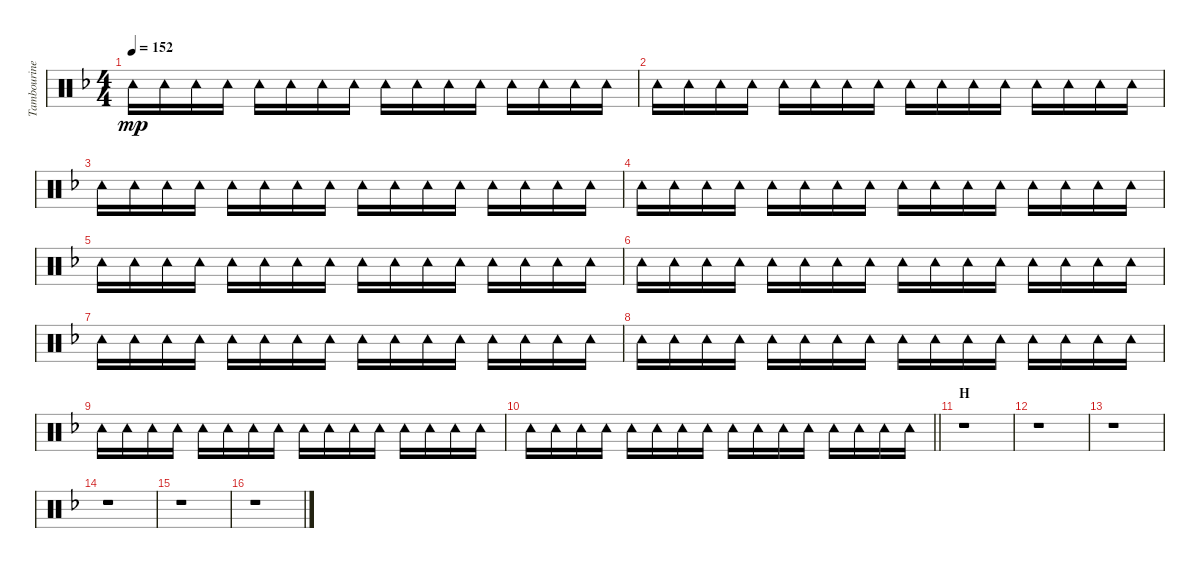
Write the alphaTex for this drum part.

\track ("Tambourine" "Tambourine") {instrument percussion}
\staff {score}
\articulation defaults
\ts (4 4)
\tempo 152
\clef neutral
\ks f "Tambourine (hit)".16{dy mp} "Tambourine (hit)".16 "Tambourine (hit)".16 "Tambourine (hit)".16 "Tambourine (hit)".16 "Tambourine (hit)".16 "Tambourine (hit)".16 "Tambourine (hit)".16 "Tambourine (hit)".16 "Tambourine (hit)".16 "Tambourine (hit)".16 "Tambourine (hit)".16 "Tambourine (hit)".16 "Tambourine (hit)".16 "Tambourine (hit)".16 "Tambourine (hit)".16
|
"Tambourine (hit)".16 "Tambourine (hit)".16 "Tambourine (hit)".16 "Tambourine (hit)".16 "Tambourine (hit)".16 "Tambourine (hit)".16 "Tambourine (hit)".16 "Tambourine (hit)".16 "Tambourine (hit)".16 "Tambourine (hit)".16 "Tambourine (hit)".16 "Tambourine (hit)".16 "Tambourine (hit)".16 "Tambourine (hit)".16 "Tambourine (hit)".16 "Tambourine (hit)".16 |
"Tambourine (hit)".16 "Tambourine (hit)".16 "Tambourine (hit)".16 "Tambourine (hit)".16 "Tambourine (hit)".16 "Tambourine (hit)".16 "Tambourine (hit)".16 "Tambourine (hit)".16 "Tambourine (hit)".16 "Tambourine (hit)".16 "Tambourine (hit)".16 "Tambourine (hit)".16 "Tambourine (hit)".16 "Tambourine (hit)".16 "Tambourine (hit)".16 "Tambourine (hit)".16 |
"Tambourine (hit)".16 "Tambourine (hit)".16 "Tambourine (hit)".16 "Tambourine (hit)".16 "Tambourine (hit)".16 "Tambourine (hit)".16 "Tambourine (hit)".16 "Tambourine (hit)".16 "Tambourine (hit)".16 "Tambourine (hit)".16 "Tambourine (hit)".16 "Tambourine (hit)".16 "Tambourine (hit)".16 "Tambourine (hit)".16 "Tambourine (hit)".16 "Tambourine (hit)".16 |
"Tambourine (hit)".16 "Tambourine (hit)".16 "Tambourine (hit)".16 "Tambourine (hit)".16 "Tambourine (hit)".16 "Tambourine (hit)".16 "Tambourine (hit)".16 "Tambourine (hit)".16 "Tambourine (hit)".16 "Tambourine (hit)".16 "Tambourine (hit)".16 "Tambourine (hit)".16 "Tambourine (hit)".16 "Tambourine (hit)".16 "Tambourine (hit)".16 "Tambourine (hit)".16 |
"Tambourine (hit)".16 "Tambourine (hit)".16 "Tambourine (hit)".16 "Tambourine (hit)".16 "Tambourine (hit)".16 "Tambourine (hit)".16 "Tambourine (hit)".16 "Tambourine (hit)".16 "Tambourine (hit)".16 "Tambourine (hit)".16 "Tambourine (hit)".16 "Tambourine (hit)".16 "Tambourine (hit)".16 "Tambourine (hit)".16 "Tambourine (hit)".16 "Tambourine (hit)".16 |
"Tambourine (hit)".16 "Tambourine (hit)".16 "Tambourine (hit)".16 "Tambourine (hit)".16 "Tambourine (hit)".16 "Tambourine (hit)".16 "Tambourine (hit)".16 "Tambourine (hit)".16 "Tambourine (hit)".16 "Tambourine (hit)".16 "Tambourine (hit)".16 "Tambourine (hit)".16 "Tambourine (hit)".16 "Tambourine (hit)".16 "Tambourine (hit)".16 "Tambourine (hit)".16 |
"Tambourine (hit)".16 "Tambourine (hit)".16 "Tambourine (hit)".16 "Tambourine (hit)".16 "Tambourine (hit)".16 "Tambourine (hit)".16 "Tambourine (hit)".16 "Tambourine (hit)".16 "Tambourine (hit)".16 "Tambourine (hit)".16 "Tambourine (hit)".16 "Tambourine (hit)".16 "Tambourine (hit)".16 "Tambourine (hit)".16 "Tambourine (hit)".16 "Tambourine (hit)".16 |
"Tambourine (hit)".16 "Tambourine (hit)".16 "Tambourine (hit)".16 "Tambourine (hit)".16 "Tambourine (hit)".16 "Tambourine (hit)".16 "Tambourine (hit)".16 "Tambourine (hit)".16 "Tambourine (hit)".16 "Tambourine (hit)".16 "Tambourine (hit)".16 "Tambourine (hit)".16 "Tambourine (hit)".16 "Tambourine (hit)".16 "Tambourine (hit)".16 "Tambourine (hit)".16 |
\barLineRight lightlight "Tambourine (hit)".16 "Tambourine (hit)".16 "Tambourine (hit)".16 "Tambourine (hit)".16 "Tambourine (hit)".16 "Tambourine (hit)".16 "Tambourine (hit)".16 "Tambourine (hit)".16 "Tambourine (hit)".16 "Tambourine (hit)".16 "Tambourine (hit)".16 "Tambourine (hit)".16 "Tambourine (hit)".16 "Tambourine (hit)".16 "Tambourine (hit)".16 "Tambourine (hit)".16
|
\section ("" "H")
r.1 |
r.1 |
r.1 |
r.1 |
r.1 |
r.1
